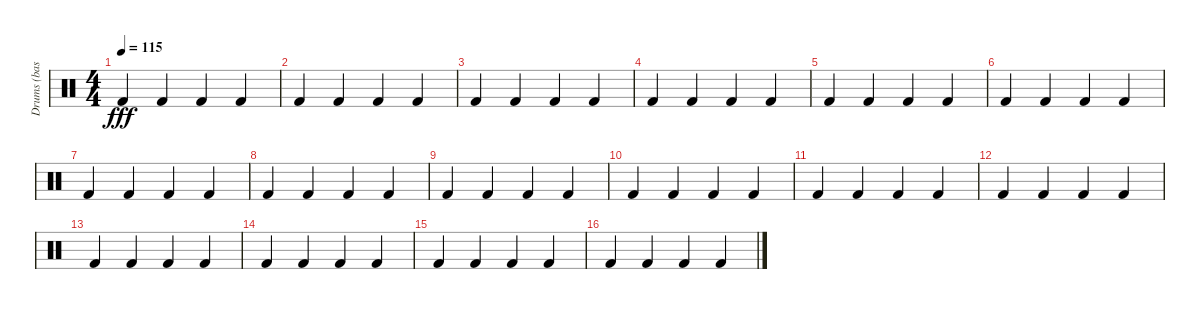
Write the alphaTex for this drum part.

\track ("Drums (bass drum)" "Drums (bas") {instrument percussion}
\staff {score}
\articulation defaults
\ts (4 4)
\tempo 115
\clef neutral
\ks c "Kick (hit) 2".4{dy fff} "Kick (hit) 2".4 "Kick (hit) 2".4 "Kick (hit) 2".4
|
"Kick (hit) 2".4 "Kick (hit) 2".4 "Kick (hit) 2".4 "Kick (hit) 2".4 |
"Kick (hit) 2".4 "Kick (hit) 2".4 "Kick (hit) 2".4 "Kick (hit) 2".4 |
"Kick (hit) 2".4 "Kick (hit) 2".4 "Kick (hit) 2".4 "Kick (hit) 2".4 |
"Kick (hit) 2".4 "Kick (hit) 2".4 "Kick (hit) 2".4 "Kick (hit) 2".4 |
"Kick (hit) 2".4 "Kick (hit) 2".4 "Kick (hit) 2".4 "Kick (hit) 2".4 |
"Kick (hit) 2".4 "Kick (hit) 2".4 "Kick (hit) 2".4 "Kick (hit) 2".4 |
"Kick (hit) 2".4 "Kick (hit) 2".4 "Kick (hit) 2".4 "Kick (hit) 2".4 |
"Kick (hit) 2".4 "Kick (hit) 2".4 "Kick (hit) 2".4 "Kick (hit) 2".4 |
"Kick (hit) 2".4 "Kick (hit) 2".4 "Kick (hit) 2".4 "Kick (hit) 2".4 |
"Kick (hit) 2".4 "Kick (hit) 2".4 "Kick (hit) 2".4 "Kick (hit) 2".4 |
"Kick (hit) 2".4 "Kick (hit) 2".4 "Kick (hit) 2".4 "Kick (hit) 2".4 |
"Kick (hit) 2".4 "Kick (hit) 2".4 "Kick (hit) 2".4 "Kick (hit) 2".4 |
"Kick (hit) 2".4 "Kick (hit) 2".4 "Kick (hit) 2".4 "Kick (hit) 2".4 |
"Kick (hit) 2".4 "Kick (hit) 2".4 "Kick (hit) 2".4 "Kick (hit) 2".4 |
"Kick (hit) 2".4 "Kick (hit) 2".4 "Kick (hit) 2".4 "Kick (hit) 2".4
